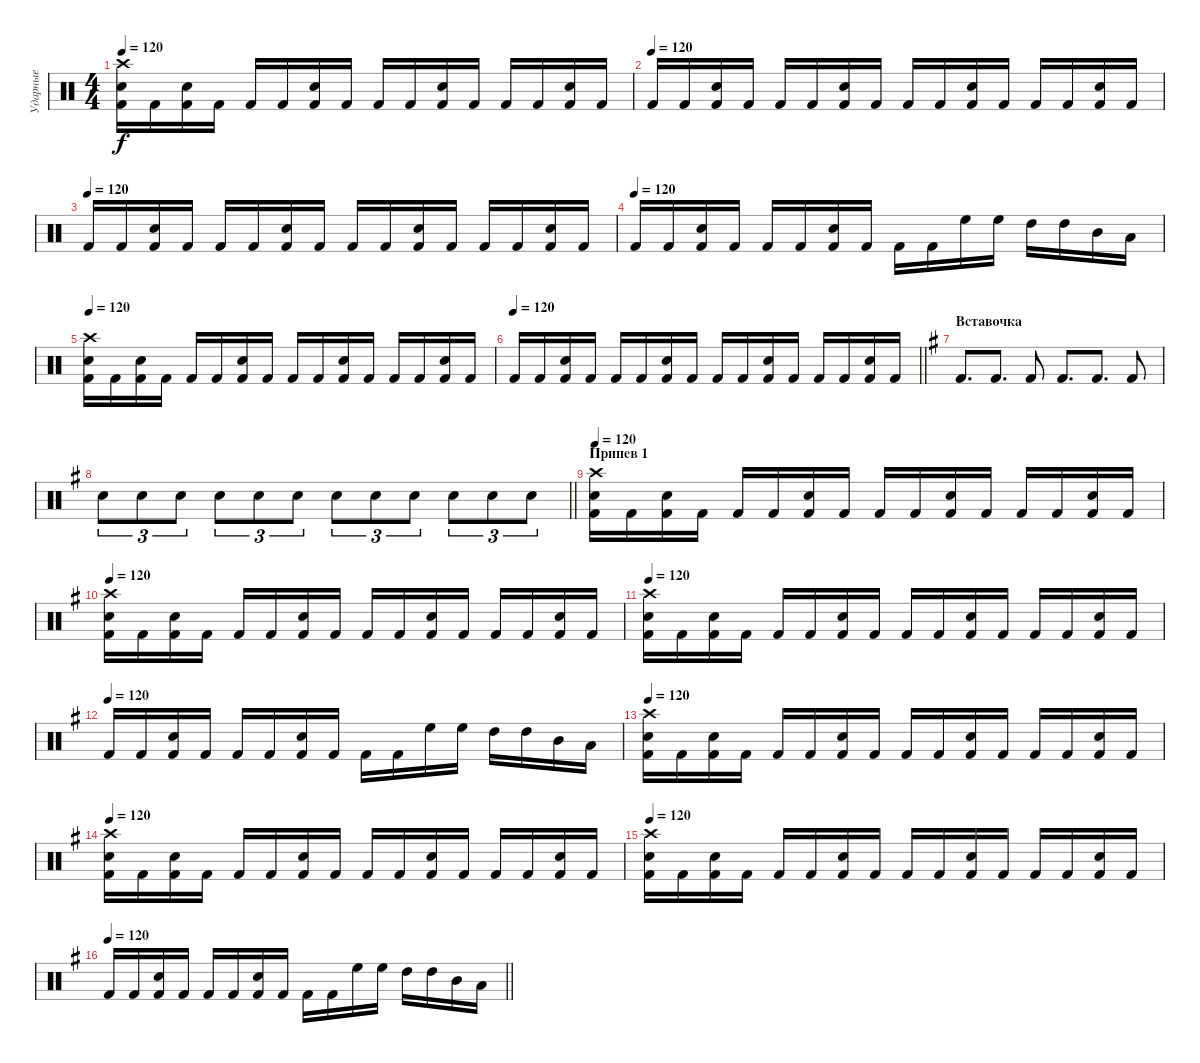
\track ("Ударные" "Ударные") {solo instrument percussion}
\staff {score}
\articulation defaults
\ts (4 4)
\tempo 120
\clef neutral
\ks c
("Crash high (hit)" "Electric Snare (hit)" "Kick (hit) 2").16{dy f} "Kick (hit) 2".16 ("Electric Snare (hit)" "Kick (hit) 2").16 "Kick (hit) 2".16 "Kick (hit) 2".16 "Kick (hit) 2".16 ("Electric Snare (hit)" "Kick (hit) 2").16 "Kick (hit) 2".16 "Kick (hit) 2".16 "Kick (hit) 2".16 ("Electric Snare (hit)" "Kick (hit) 2").16 "Kick (hit) 2".16 "Kick (hit) 2".16 "Kick (hit) 2".16 ("Electric Snare (hit)" "Kick (hit) 2").16 "Kick (hit) 2".16 |
\tempo (120)
"Kick (hit) 2".16 "Kick (hit) 2".16 ("Electric Snare (hit)" "Kick (hit) 2").16 "Kick (hit) 2".16 "Kick (hit) 2".16 "Kick (hit) 2".16 ("Electric Snare (hit)" "Kick (hit) 2").16 "Kick (hit) 2".16 "Kick (hit) 2".16 "Kick (hit) 2".16 ("Electric Snare (hit)" "Kick (hit) 2").16 "Kick (hit) 2".16 "Kick (hit) 2".16 "Kick (hit) 2".16 ("Electric Snare (hit)" "Kick (hit) 2").16 "Kick (hit) 2".16 |
\tempo (120)
"Kick (hit) 2".16 "Kick (hit) 2".16 ("Electric Snare (hit)" "Kick (hit) 2").16 "Kick (hit) 2".16 "Kick (hit) 2".16 "Kick (hit) 2".16 ("Electric Snare (hit)" "Kick (hit) 2").16 "Kick (hit) 2".16 "Kick (hit) 2".16 "Kick (hit) 2".16 ("Electric Snare (hit)" "Kick (hit) 2").16 "Kick (hit) 2".16 "Kick (hit) 2".16 "Kick (hit) 2".16 ("Electric Snare (hit)" "Kick (hit) 2").16 "Kick (hit) 2".16 |
\tempo (120)
"Kick (hit) 2".16 "Kick (hit) 2".16 ("Electric Snare (hit)" "Kick (hit) 2").16 "Kick (hit) 2".16 "Kick (hit) 2".16 "Kick (hit) 2".16 ("Electric Snare (hit)" "Kick (hit) 2").16 "Kick (hit) 2".16 "Kick (hit) 2".16 "Kick (hit) 2".16 "High Floor Tom (hit)".16 "High Floor Tom (hit)".16 "High Tom (hit)".16 "High Tom (hit)".16 "Mid Tom (hit)".16 "Low Tom (hit)".16 |
\tempo 120
("Crash high (hit)" "Electric Snare (hit)" "Kick (hit) 2").16 "Kick (hit) 2".16 ("Electric Snare (hit)" "Kick (hit) 2").16 "Kick (hit) 2".16 "Kick (hit) 2".16 "Kick (hit) 2".16 ("Electric Snare (hit)" "Kick (hit) 2").16 "Kick (hit) 2".16 "Kick (hit) 2".16 "Kick (hit) 2".16 ("Electric Snare (hit)" "Kick (hit) 2").16 "Kick (hit) 2".16 "Kick (hit) 2".16 "Kick (hit) 2".16 ("Electric Snare (hit)" "Kick (hit) 2").16 "Kick (hit) 2".16 |
\tempo 120
\barLineRight lightlight "Kick (hit) 2".16 "Kick (hit) 2".16
("Electric Snare (hit)" "Kick (hit) 2").16 "Kick (hit) 2".16 "Kick (hit) 2".16 "Kick (hit) 2".16 ("Electric Snare (hit)" "Kick (hit) 2").16 "Kick (hit) 2".16 "Kick (hit) 2".16 "Kick (hit) 2".16 ("Electric Snare (hit)" "Kick (hit) 2").16 "Kick (hit) 2".16 "Kick (hit) 2".16 "Kick (hit) 2".16 ("Electric Snare (hit)" "Kick (hit) 2").16 "Kick (hit) 2".16 |
\section ("" "Вставочка")
\ks g "Kick (hit) 2".8{d} "Kick (hit) 2".8{d} "Kick (hit) 2".8 "Kick (hit) 2".8{d} "Kick (hit) 2".8{d} "Kick (hit) 2".8
|
\barLineRight lightlight "Electric Snare (hit)".8{tu (3 2)} "Electric Snare (hit)".8{tu (3 2)} "Electric Snare (hit)".8{tu (3 2)} "Electric Snare (hit)".8{tu (3 2)} "Electric Snare (hit)".8{tu (3 2)} "Electric Snare (hit)".8{tu (3 2)} "Electric Snare (hit)".8{tu (3 2)} "Electric Snare (hit)".8{tu (3 2)} "Electric Snare (hit)".8{tu (3 2)} "Electric Snare (hit)".8{tu (3 2)} "Electric Snare (hit)".8{tu (3 2)} "Electric Snare (hit)".8{tu (3 2)}
|
\section ("" "Припев 1")
\tempo 120
("Crash high (hit)" "Electric Snare (hit)" "Kick (hit) 2").16 "Kick (hit) 2".16 ("Electric Snare (hit)" "Kick (hit) 2").16 "Kick (hit) 2".16 "Kick (hit) 2".16 "Kick (hit) 2".16 ("Electric Snare (hit)" "Kick (hit) 2").16 "Kick (hit) 2".16 "Kick (hit) 2".16 "Kick (hit) 2".16 ("Electric Snare (hit)" "Kick (hit) 2").16 "Kick (hit) 2".16 "Kick (hit) 2".16 "Kick (hit) 2".16 ("Electric Snare (hit)" "Kick (hit) 2").16 "Kick (hit) 2".16 |
\tempo 120
("Crash high (hit)" "Electric Snare (hit)" "Kick (hit) 2").16 "Kick (hit) 2".16 ("Electric Snare (hit)" "Kick (hit) 2").16 "Kick (hit) 2".16 "Kick (hit) 2".16 "Kick (hit) 2".16 ("Electric Snare (hit)" "Kick (hit) 2").16 "Kick (hit) 2".16 "Kick (hit) 2".16 "Kick (hit) 2".16 ("Electric Snare (hit)" "Kick (hit) 2").16 "Kick (hit) 2".16 "Kick (hit) 2".16 "Kick (hit) 2".16 ("Electric Snare (hit)" "Kick (hit) 2").16 "Kick (hit) 2".16 |
\tempo 120
("Crash high (hit)" "Electric Snare (hit)" "Kick (hit) 2").16 "Kick (hit) 2".16 ("Electric Snare (hit)" "Kick (hit) 2").16 "Kick (hit) 2".16 "Kick (hit) 2".16 "Kick (hit) 2".16 ("Electric Snare (hit)" "Kick (hit) 2").16 "Kick (hit) 2".16 "Kick (hit) 2".16 "Kick (hit) 2".16 ("Electric Snare (hit)" "Kick (hit) 2").16 "Kick (hit) 2".16 "Kick (hit) 2".16 "Kick (hit) 2".16 ("Electric Snare (hit)" "Kick (hit) 2").16 "Kick (hit) 2".16 |
\tempo (120)
"Kick (hit) 2".16 "Kick (hit) 2".16 ("Electric Snare (hit)" "Kick (hit) 2").16 "Kick (hit) 2".16 "Kick (hit) 2".16 "Kick (hit) 2".16 ("Electric Snare (hit)" "Kick (hit) 2").16 "Kick (hit) 2".16 "Kick (hit) 2".16 "Kick (hit) 2".16 "High Floor Tom (hit)".16 "High Floor Tom (hit)".16 "High Tom (hit)".16 "High Tom (hit)".16 "Mid Tom (hit)".16 "Low Tom (hit)".16 |
\tempo 120
("Crash high (hit)" "Electric Snare (hit)" "Kick (hit) 2").16 "Kick (hit) 2".16 ("Electric Snare (hit)" "Kick (hit) 2").16 "Kick (hit) 2".16 "Kick (hit) 2".16 "Kick (hit) 2".16 ("Electric Snare (hit)" "Kick (hit) 2").16 "Kick (hit) 2".16 "Kick (hit) 2".16 "Kick (hit) 2".16 ("Electric Snare (hit)" "Kick (hit) 2").16 "Kick (hit) 2".16 "Kick (hit) 2".16 "Kick (hit) 2".16 ("Electric Snare (hit)" "Kick (hit) 2").16 "Kick (hit) 2".16 |
\tempo 120
("Crash high (hit)" "Electric Snare (hit)" "Kick (hit) 2").16 "Kick (hit) 2".16 ("Electric Snare (hit)" "Kick (hit) 2").16 "Kick (hit) 2".16 "Kick (hit) 2".16 "Kick (hit) 2".16 ("Electric Snare (hit)" "Kick (hit) 2").16 "Kick (hit) 2".16 "Kick (hit) 2".16 "Kick (hit) 2".16 ("Electric Snare (hit)" "Kick (hit) 2").16 "Kick (hit) 2".16 "Kick (hit) 2".16 "Kick (hit) 2".16 ("Electric Snare (hit)" "Kick (hit) 2").16 "Kick (hit) 2".16 |
\tempo 120
("Crash high (hit)" "Electric Snare (hit)" "Kick (hit) 2").16 "Kick (hit) 2".16 ("Electric Snare (hit)" "Kick (hit) 2").16 "Kick (hit) 2".16 "Kick (hit) 2".16 "Kick (hit) 2".16 ("Electric Snare (hit)" "Kick (hit) 2").16 "Kick (hit) 2".16 "Kick (hit) 2".16 "Kick (hit) 2".16 ("Electric Snare (hit)" "Kick (hit) 2").16 "Kick (hit) 2".16 "Kick (hit) 2".16 "Kick (hit) 2".16 ("Electric Snare (hit)" "Kick (hit) 2").16 "Kick (hit) 2".16 |
\tempo 120
\barLineRight lightlight "Kick (hit) 2".16 "Kick (hit) 2".16
("Electric Snare (hit)" "Kick (hit) 2").16 "Kick (hit) 2".16 "Kick (hit) 2".16 "Kick (hit) 2".16 ("Electric Snare (hit)" "Kick (hit) 2").16 "Kick (hit) 2".16 "Kick (hit) 2".16 "Kick (hit) 2".16 "High Floor Tom (hit)".16 "High Floor Tom (hit)".16 "High Tom (hit)".16 "High Tom (hit)".16 "Mid Tom (hit)".16 "Low Tom (hit)".16
